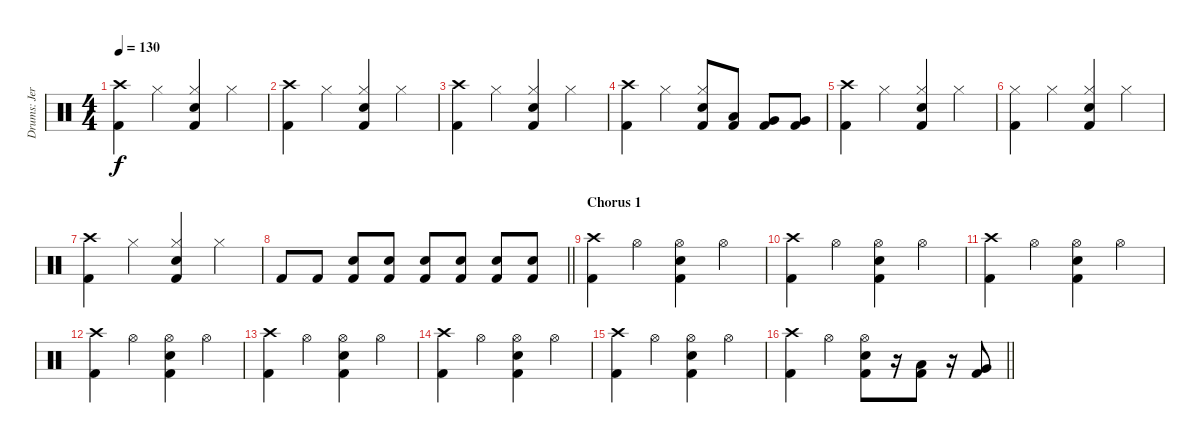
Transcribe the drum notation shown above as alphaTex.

\track ("Drums: Jere Luokkamäki" "Drums: Jer") {instrument percussion}
\staff {score}
\articulation defaults
\ts (4 4)
\tempo 130
\clef neutral
\ks aminor
("Crash high (hit)" "Kick (hit) 2").4{dy f} "Hi-Hat (closed)".4 ("Hi-Hat (closed)" "Electric Snare (hit)" "Kick (hit) 2").4 "Hi-Hat (closed)".4 |
("Crash high (hit)" "Kick (hit) 2").4 "Hi-Hat (closed)".4 ("Hi-Hat (closed)" "Electric Snare (hit)" "Kick (hit) 2").4 "Hi-Hat (closed)".4 |
("Crash high (hit)" "Kick (hit) 2").4 "Hi-Hat (closed)".4 ("Hi-Hat (closed)" "Electric Snare (hit)" "Kick (hit) 2").4 "Hi-Hat (closed)".4 |
("Crash high (hit)" "Kick (hit) 2").4 "Hi-Hat (closed)".4 ("Hi-Hat (closed)" "Electric Snare (hit)" "Kick (hit) 2").8 ("Low Tom (hit)" "Kick (hit) 2").8 ("Very Low Tom (hit)" "Kick (hit) 2").8 ("Very Low Tom (hit)" "Kick (hit) 2").8 |
("Crash high (hit)" "Kick (hit) 2").4 "Hi-Hat (closed)".4 ("Hi-Hat (closed)" "Electric Snare (hit)" "Kick (hit) 2").4 "Hi-Hat (closed)".4 |
("Hi-Hat (closed)" "Kick (hit) 2").4 "Hi-Hat (closed)".4 ("Hi-Hat (closed)" "Electric Snare (hit)" "Kick (hit) 2").4 "Hi-Hat (closed)".4 |
("Crash high (hit)" "Kick (hit) 2").4 "Hi-Hat (closed)".4 ("Hi-Hat (closed)" "Electric Snare (hit)" "Kick (hit) 2").4 "Hi-Hat (closed)".4 |
\barLineRight lightlight "Kick (hit) 2".8 "Kick (hit) 2".8
("Electric Snare (hit)" "Kick (hit) 2").8 ("Electric Snare (hit)" "Kick (hit) 2").8 ("Electric Snare (hit)" "Kick (hit) 2").8 ("Electric Snare (hit)" "Kick (hit) 2").8 ("Electric Snare (hit)" "Kick (hit) 2").8 ("Electric Snare (hit)" "Kick (hit) 2").8 |
\section ("" "Chorus 1")
("Crash high (hit)" "Kick (hit) 2").4 "Hi-Hat (open)".4 ("Hi-Hat (open)" "Electric Snare (hit)" "Kick (hit) 2").4 "Hi-Hat (open)".4 |
("Crash high (hit)" "Kick (hit) 2").4 "Hi-Hat (open)".4 ("Hi-Hat (open)" "Electric Snare (hit)" "Kick (hit) 2").4 "Hi-Hat (open)".4 |
("Crash high (hit)" "Kick (hit) 2").4 "Hi-Hat (open)".4 ("Hi-Hat (open)" "Electric Snare (hit)" "Kick (hit) 2").4 "Hi-Hat (open)".4 |
("Crash high (hit)" "Kick (hit) 2").4 "Hi-Hat (open)".4 ("Hi-Hat (open)" "Electric Snare (hit)" "Kick (hit) 2").4 "Hi-Hat (open)".4 |
("Crash high (hit)" "Kick (hit) 2").4 "Hi-Hat (open)".4 ("Hi-Hat (open)" "Electric Snare (hit)" "Kick (hit) 2").4 "Hi-Hat (open)".4 |
("Crash high (hit)" "Kick (hit) 2").4 "Hi-Hat (open)".4 ("Hi-Hat (open)" "Electric Snare (hit)" "Kick (hit) 2").4 "Hi-Hat (open)".4 |
("Crash high (hit)" "Kick (hit) 2").4 "Hi-Hat (open)".4 ("Hi-Hat (open)" "Electric Snare (hit)" "Kick (hit) 2").4 "Hi-Hat (open)".4 |
\barLineRight lightlight
("Crash high (hit)" "Kick (hit) 2").4 "Hi-Hat (open)".4 ("Hi-Hat (open)" "Electric Snare (hit)" "Kick (hit) 2").8 r.16 ("Low Tom (hit)" "Kick (hit) 2").8 r.16 ("Very Low Tom (hit)" "Kick (hit) 2").8
